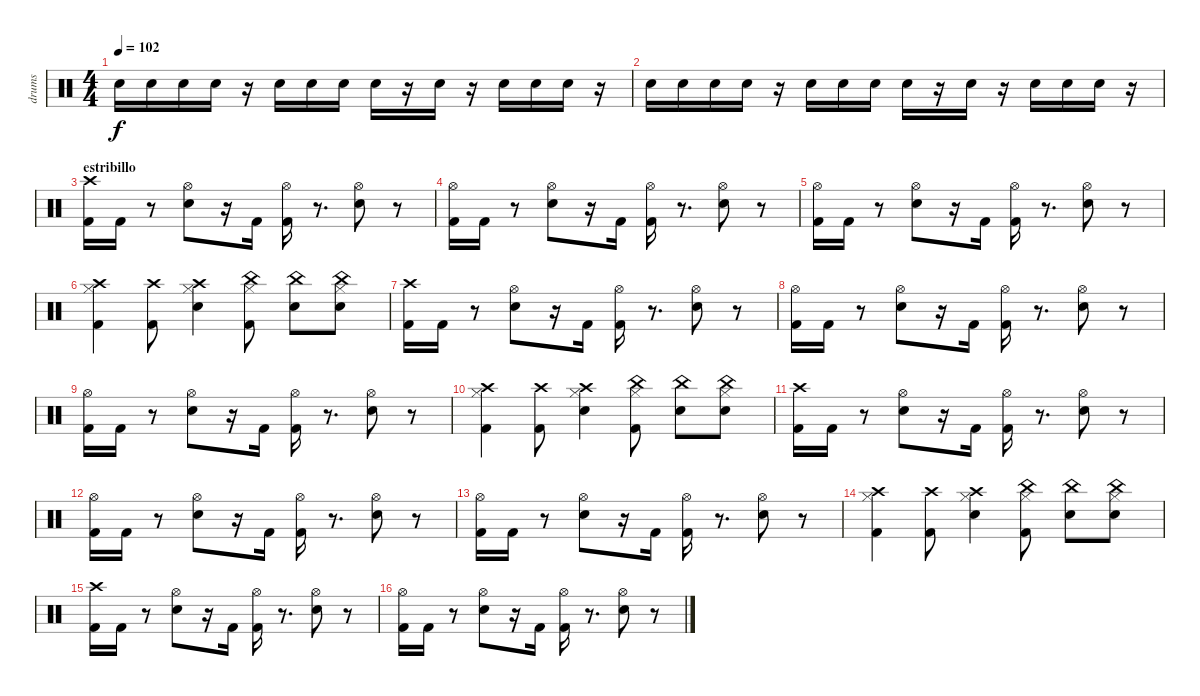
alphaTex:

\track ("drums" "drums") {instrument percussion}
\staff {score}
\articulation defaults
\ts (4 4)
\tempo 102
\clef neutral
\ks c "Snare (hit) 2".16{dy f} "Snare (hit) 2".16 "Snare (hit) 2".16 "Snare (hit) 2".16
r.16 "Snare (hit) 2".16 "Snare (hit) 2".16 "Snare (hit) 2".16 "Snare (hit) 2".16 r.16 "Snare (hit) 2".16 r.16 "Snare (hit) 2".16 "Snare (hit) 2".16 "Snare (hit) 2".16 r.16 |
"Snare (hit) 2".16 "Snare (hit) 2".16 "Snare (hit) 2".16 "Snare (hit) 2".16 r.16 "Snare (hit) 2".16 "Snare (hit) 2".16 "Snare (hit) 2".16 "Snare (hit) 2".16 r.16 "Snare (hit) 2".16 r.16 "Snare (hit) 2".16 "Snare (hit) 2".16 "Snare (hit) 2".16 r.16 |
\section ("" "estribillo")
("Kick (hit) 2" "Crash high (hit)").16 "Kick (hit) 2".16 r.8 ("Snare (hit) 2" "Hi-Hat (open)").8 r.16 "Kick (hit) 2".16 ("Kick (hit) 2" "Hi-Hat (open)").16 r.8{d} ("Snare (hit) 2" "Hi-Hat (open)").8 r.8 |
("Kick (hit) 2" "Hi-Hat (open)").16 "Kick (hit) 2".16 r.8 ("Snare (hit) 2" "Hi-Hat (open)").8 r.16 "Kick (hit) 2".16 ("Kick (hit) 2" "Hi-Hat (open)").16 r.8{d} ("Snare (hit) 2" "Hi-Hat (open)").8 r.8 |
("Kick (hit) 2" "Hi-Hat (open)").16 "Kick (hit) 2".16 r.8 ("Snare (hit) 2" "Hi-Hat (open)").8 r.16 "Kick (hit) 2".16 ("Kick (hit) 2" "Hi-Hat (open)").16 r.8{d} ("Snare (hit) 2" "Hi-Hat (open)").8 r.8 |
("Kick (hit) 2" "Hi-Hat (closed)" "Crash high (hit)").4 ("Kick (hit) 2" "Crash high (hit)").8 ("Snare (hit) 2" "Hi-Hat (closed)" "Crash high (hit)").4 ("Kick (hit) 2" "Hi-Hat (closed)" "China (hit)").8 ("Snare (hit) 2" "China (hit)").8 ("Snare (hit) 2" "Hi-Hat (closed)" "China (hit)").8 |
("Kick (hit) 2" "Crash high (hit)").16 "Kick (hit) 2".16 r.8 ("Snare (hit) 2" "Hi-Hat (open)").8 r.16 "Kick (hit) 2".16 ("Kick (hit) 2" "Hi-Hat (open)").16 r.8{d} ("Snare (hit) 2" "Hi-Hat (open)").8 r.8 |
("Kick (hit) 2" "Hi-Hat (open)").16 "Kick (hit) 2".16 r.8 ("Snare (hit) 2" "Hi-Hat (open)").8 r.16 "Kick (hit) 2".16 ("Kick (hit) 2" "Hi-Hat (open)").16 r.8{d} ("Snare (hit) 2" "Hi-Hat (open)").8 r.8 |
("Kick (hit) 2" "Hi-Hat (open)").16 "Kick (hit) 2".16 r.8 ("Snare (hit) 2" "Hi-Hat (open)").8 r.16 "Kick (hit) 2".16 ("Kick (hit) 2" "Hi-Hat (open)").16 r.8{d} ("Snare (hit) 2" "Hi-Hat (open)").8 r.8 |
("Kick (hit) 2" "Hi-Hat (closed)" "Crash high (hit)").4 ("Kick (hit) 2" "Crash high (hit)").8 ("Snare (hit) 2" "Hi-Hat (closed)" "Crash high (hit)").4 ("Kick (hit) 2" "Hi-Hat (closed)" "China (hit)").8 ("Snare (hit) 2" "China (hit)").8 ("Snare (hit) 2" "Hi-Hat (closed)" "China (hit)").8 |
("Kick (hit) 2" "Crash high (hit)").16 "Kick (hit) 2".16 r.8 ("Snare (hit) 2" "Hi-Hat (open)").8 r.16 "Kick (hit) 2".16 ("Kick (hit) 2" "Hi-Hat (open)").16 r.8{d} ("Snare (hit) 2" "Hi-Hat (open)").8 r.8 |
("Kick (hit) 2" "Hi-Hat (open)").16 "Kick (hit) 2".16 r.8 ("Snare (hit) 2" "Hi-Hat (open)").8 r.16 "Kick (hit) 2".16 ("Kick (hit) 2" "Hi-Hat (open)").16 r.8{d} ("Snare (hit) 2" "Hi-Hat (open)").8 r.8 |
("Kick (hit) 2" "Hi-Hat (open)").16 "Kick (hit) 2".16 r.8 ("Snare (hit) 2" "Hi-Hat (open)").8 r.16 "Kick (hit) 2".16 ("Kick (hit) 2" "Hi-Hat (open)").16 r.8{d} ("Snare (hit) 2" "Hi-Hat (open)").8 r.8 |
("Kick (hit) 2" "Hi-Hat (closed)" "Crash high (hit)").4 ("Kick (hit) 2" "Crash high (hit)").8 ("Snare (hit) 2" "Hi-Hat (closed)" "Crash high (hit)").4 ("Kick (hit) 2" "Hi-Hat (closed)" "China (hit)").8 ("Snare (hit) 2" "China (hit)").8 ("Snare (hit) 2" "Hi-Hat (closed)" "China (hit)").8 |
("Kick (hit) 2" "Crash high (hit)").16 "Kick (hit) 2".16 r.8 ("Snare (hit) 2" "Hi-Hat (open)").8 r.16 "Kick (hit) 2".16 ("Kick (hit) 2" "Hi-Hat (open)").16 r.8{d} ("Snare (hit) 2" "Hi-Hat (open)").8 r.8 |
("Kick (hit) 2" "Hi-Hat (open)").16 "Kick (hit) 2".16 r.8 ("Snare (hit) 2" "Hi-Hat (open)").8 r.16 "Kick (hit) 2".16 ("Kick (hit) 2" "Hi-Hat (open)").16 r.8{d} ("Snare (hit) 2" "Hi-Hat (open)").8 r.8
